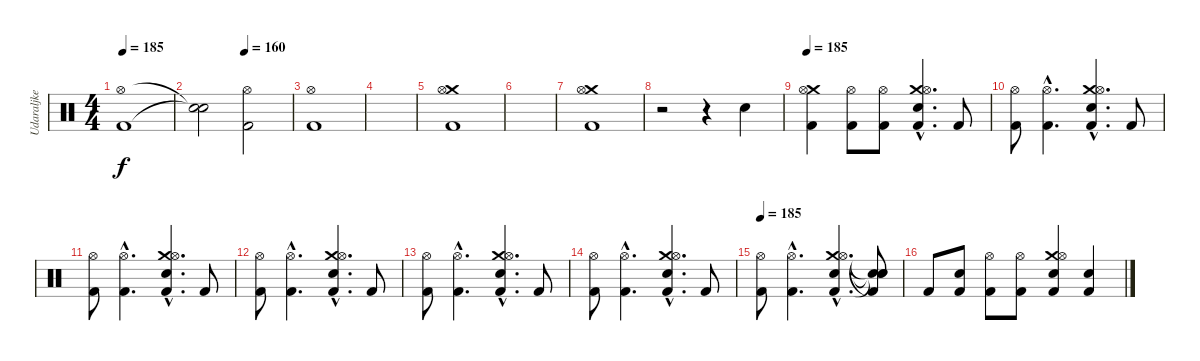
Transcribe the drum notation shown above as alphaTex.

\track ("Udaraljke" "Udaraljke") {instrument percussion}
\staff {score}
\articulation defaults
\ts (4 4)
\tempo 185
\clef neutral
\ks c
("Kick (hit) 2" "Hi-Hat (open)").1{dy f} |
\tempo (160 0.5)
("Snare (hit)"{t} "Snare (hit)"{t}).2 ("Kick (hit) 2" "Hi-Hat (open)").2 |
("Kick (hit) 2" "Hi-Hat (open)").1 |
|
("Crash medium (hit)" "Kick (hit) 2" "Hi-Hat (open)").1 |
|
("Crash medium (hit)" "Kick (hit) 2" "Hi-Hat (open)").1 |
r.2 r.4 "Electric Snare (hit)".4 |
\tempo 185
("Crash medium (hit)" "Kick (hit) 2" "Hi-Hat (open)").4 ("Hi-Hat (open)" "Kick (hit) 2").8 ("Hi-Hat (open)" "Kick (hit) 2").8 ("Crash medium (hit)"{hac} "Electric Snare (hit)"{hac} "Kick (hit) 2"{hac} "Hi-Hat (open)"{hac}).4{d} "Kick (hit) 2".8 |
("Hi-Hat (open)" "Kick (hit) 2").8 ("Hi-Hat (open)"{hac} "Kick (hit) 2"{hac}).4{d} ("Crash medium (hit)"{hac} "Electric Snare (hit)"{hac} "Kick (hit) 2"{hac} "Hi-Hat (open)"{hac}).4{d} "Kick (hit) 2".8 |
("Hi-Hat (open)" "Kick (hit) 2").8 ("Hi-Hat (open)"{hac} "Kick (hit) 2"{hac}).4{d} ("Crash medium (hit)"{hac} "Electric Snare (hit)"{hac} "Kick (hit) 2"{hac} "Hi-Hat (open)"{hac}).4{d} "Kick (hit) 2".8 |
("Hi-Hat (open)" "Kick (hit) 2").8 ("Hi-Hat (open)"{hac} "Kick (hit) 2"{hac}).4{d} ("Crash medium (hit)"{hac} "Electric Snare (hit)"{hac} "Kick (hit) 2"{hac} "Hi-Hat (open)"{hac}).4{d} "Kick (hit) 2".8 |
("Hi-Hat (open)" "Kick (hit) 2").8 ("Hi-Hat (open)"{hac} "Kick (hit) 2"{hac}).4{d} ("Crash medium (hit)"{hac} "Electric Snare (hit)"{hac} "Kick (hit) 2"{hac} "Hi-Hat (open)"{hac}).4{d} "Kick (hit) 2".8 |
("Hi-Hat (open)" "Kick (hit) 2").8 ("Hi-Hat (open)"{hac} "Kick (hit) 2"{hac}).4{d} ("Crash medium (hit)"{hac} "Electric Snare (hit)"{hac} "Kick (hit) 2"{hac} "Hi-Hat (open)"{hac}).4{d} "Kick (hit) 2".8 |
\tempo 185
("Hi-Hat (open)" "Kick (hit) 2").8 ("Hi-Hat (open)"{hac} "Kick (hit) 2"{hac}).4{d} ("Crash medium (hit)"{hac} "Electric Snare (hit)"{hac} "Kick (hit) 2"{hac} "Hi-Hat (open)"{hac}).4{d} ("Snare (hit)"{t} "Snare (hit)"{t} "Snare (hit)"{t} "Kick (hit) 2"{t}).8 |
"Kick (hit) 2".8 ("Electric Snare (hit)" "Kick (hit) 2").8 ("Hi-Hat (open)" "Kick (hit) 2").8 ("Hi-Hat (open)" "Kick (hit) 2").8 ("Crash medium (hit)" "Electric Snare (hit)" "Kick (hit) 2" "Hi-Hat (open)").4 ("Electric Snare (hit)" "Kick (hit) 2").4
